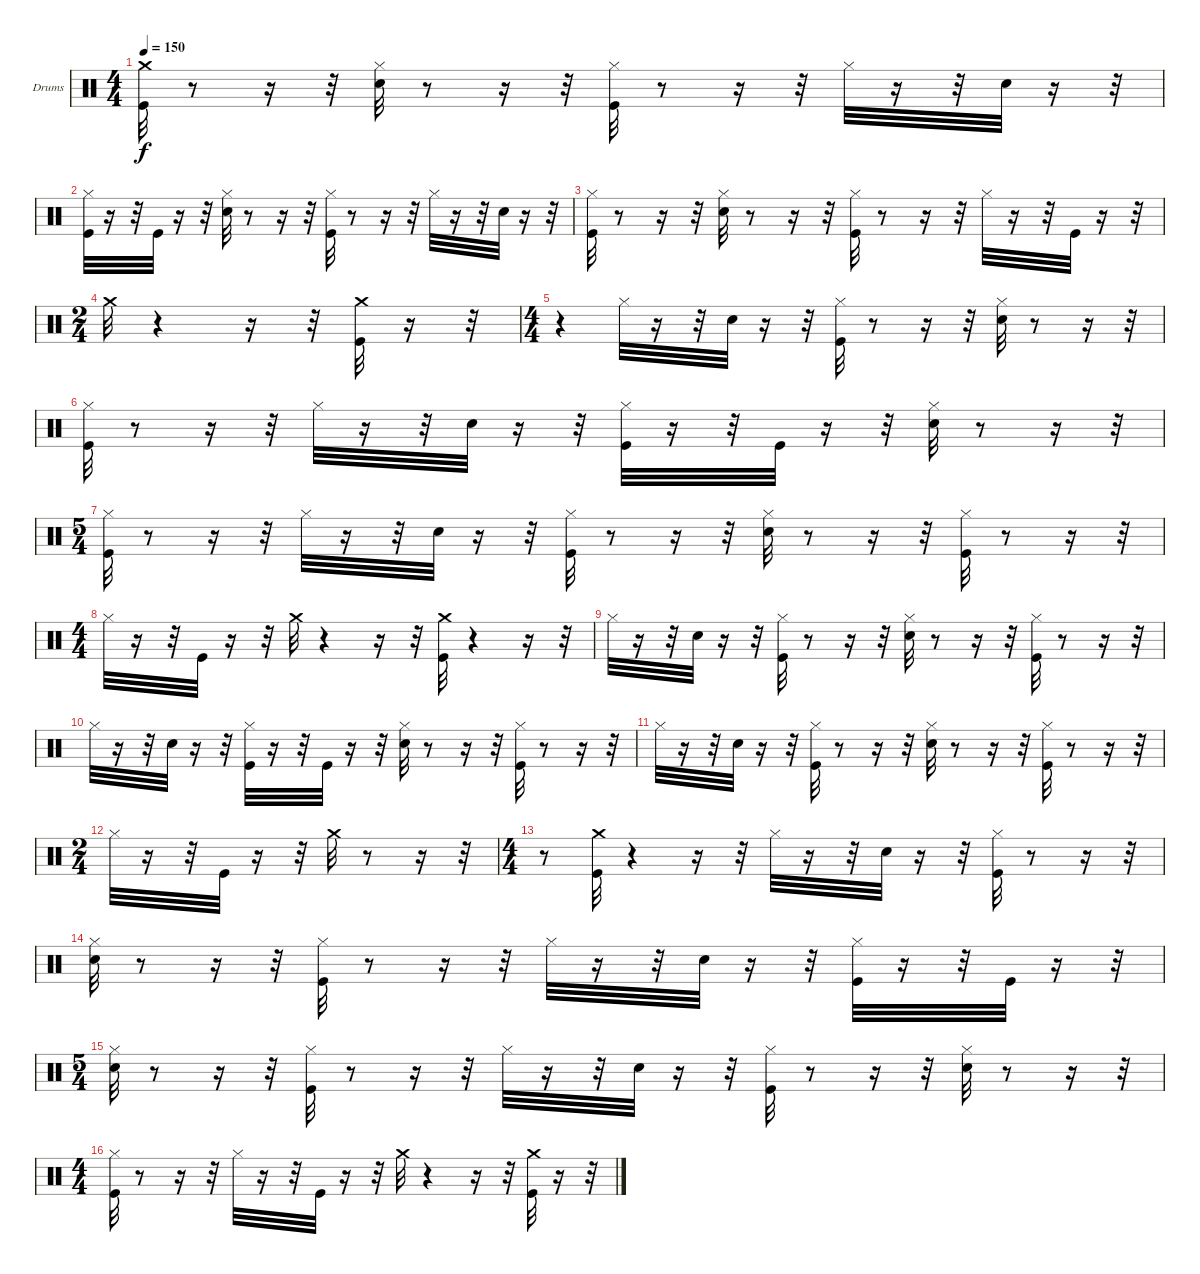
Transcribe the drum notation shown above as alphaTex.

\bracketExtendMode groupsimilarinstruments
\firstSystemTrackNameOrientation horizontal
\otherSystemsTrackNameOrientation horizontal
\track ("Drumkit" "Drums") {instrument percussion}
\staff {score}
\articulation defaults
\ts (4 4)
\tempo 150
\clef neutral
\ks c
("Crash medium (hit)" "Kick (hit)").32{dy f} r.8 r.16 r.32 ("Hi-Hat (closed)" "Snare (hit) 2").32 r.8 r.16 r.32 ("Hi-Hat (closed)" "Kick (hit)").32 r.8 r.16 r.32 "Hi-Hat (closed)".32 r.16 r.32 "Snare (hit) 2".32 r.16 r.32 |
("Hi-Hat (closed)" "Kick (hit)").32 r.16 r.32 "Kick (hit)".32 r.16 r.32 ("Hi-Hat (closed)" "Snare (hit) 2").32 r.8 r.16 r.32 ("Hi-Hat (closed)" "Kick (hit)").32 r.8 r.16 r.32 "Hi-Hat (closed)".32 r.16 r.32 "Snare (hit) 2".32 r.16 r.32 |
("Kick (hit)" "Hi-Hat (closed)").32 r.8 r.16 r.32 ("Snare (hit) 2" "Hi-Hat (closed)").32 r.8 r.16 r.32 ("Kick (hit)" "Hi-Hat (closed)").32 r.8 r.16 r.32 "Hi-Hat (closed)".32 r.16 r.32 "Kick (hit)".32 r.16 r.32 |
\ts (2 4)
"Crash medium (hit)".32 r.4 r.16 r.32 ("Crash medium (hit)" "Kick (hit)").32 r.16 r.32 |
\ts (4 4)
r.4 "Hi-Hat (closed)".32 r.16 r.32 "Snare (hit) 2".32 r.16 r.32 ("Kick (hit)" "Hi-Hat (closed)").32 r.8 r.16 r.32 ("Snare (hit) 2" "Hi-Hat (closed)").32 r.8 r.16 r.32 |
("Kick (hit)" "Hi-Hat (closed)").32 r.8 r.16 r.32 "Hi-Hat (closed)".32 r.16 r.32 "Snare (hit) 2".32 r.16 r.32 ("Hi-Hat (closed)" "Kick (hit)").32 r.16 r.32 "Kick (hit)".32 r.16 r.32 ("Hi-Hat (closed)" "Snare (hit) 2").32 r.8 r.16 r.32 |
\ts (5 4)
("Hi-Hat (closed)" "Kick (hit)").32 r.8 r.16 r.32 "Hi-Hat (closed)".32 r.16 r.32 "Snare (hit) 2".32 r.16 r.32 ("Hi-Hat (closed)" "Kick (hit)").32 r.8 r.16 r.32 ("Hi-Hat (closed)" "Snare (hit) 2").32 r.8 r.16 r.32 ("Hi-Hat (closed)" "Kick (hit)").32 r.8 r.16 r.32 |
\ts (4 4)
"Hi-Hat (closed)".32 r.16 r.32 "Kick (hit)".32 r.16 r.32 "Crash medium (hit)".32 r.4 r.16 r.32 ("Kick (hit)" "Crash medium (hit)").32 r.4 r.16 r.32 |
"Hi-Hat (closed)".32 r.16 r.32 "Snare (hit) 2".32 r.16 r.32 ("Kick (hit)" "Hi-Hat (closed)").32 r.8 r.16 r.32 ("Snare (hit) 2" "Hi-Hat (closed)").32 r.8 r.16 r.32 ("Kick (hit)" "Hi-Hat (closed)").32 r.8 r.16 r.32 |
"Hi-Hat (closed)".32 r.16 r.32 "Snare (hit) 2".32 r.16 r.32 ("Hi-Hat (closed)" "Kick (hit)").32 r.16 r.32 "Kick (hit)".32 r.16 r.32 ("Hi-Hat (closed)" "Snare (hit) 2").32 r.8 r.16 r.32 ("Hi-Hat (closed)" "Kick (hit)").32 r.8 r.16 r.32 |
"Hi-Hat (closed)".32 r.16 r.32 "Snare (hit) 2".32 r.16 r.32 ("Hi-Hat (closed)" "Kick (hit)").32 r.8 r.16 r.32 ("Hi-Hat (closed)" "Snare (hit) 2").32 r.8 r.16 r.32 ("Hi-Hat (closed)" "Kick (hit)").32 r.8 r.16 r.32 |
\ts (2 4)
"Hi-Hat (closed)".32 r.16 r.32 "Kick (hit)".32 r.16 r.32 "Crash medium (hit)".32 r.8 r.16 r.32 |
\ts (4 4)
r.8 ("Kick (hit)" "Crash medium (hit)").32 r.4 r.16 r.32 "Hi-Hat (closed)".32 r.16 r.32 "Snare (hit) 2".32 r.16 r.32 ("Kick (hit)" "Hi-Hat (closed)").32 r.8 r.16 r.32 |
("Snare (hit) 2" "Hi-Hat (closed)").32 r.8 r.16 r.32 ("Kick (hit)" "Hi-Hat (closed)").32 r.8 r.16 r.32 "Hi-Hat (closed)".32 r.16 r.32 "Snare (hit) 2".32 r.16 r.32 ("Hi-Hat (closed)" "Kick (hit)").32 r.16 r.32 "Kick (hit)".32 r.16 r.32 |
\ts (5 4)
("Hi-Hat (closed)" "Snare (hit) 2").32 r.8 r.16 r.32 ("Hi-Hat (closed)" "Kick (hit)").32 r.8 r.16 r.32 "Hi-Hat (closed)".32 r.16 r.32 "Snare (hit) 2".32 r.16 r.32 ("Hi-Hat (closed)" "Kick (hit)").32 r.8 r.16 r.32 ("Hi-Hat (closed)" "Snare (hit) 2").32 r.8 r.16 r.32 |
\ts (4 4)
("Hi-Hat (closed)" "Kick (hit)").32 r.8 r.16 r.32 "Hi-Hat (closed)".32 r.16 r.32 "Kick (hit)".32 r.16 r.32 "Crash medium (hit)".32 r.4 r.16 r.32 ("Kick (hit)" "Crash medium (hit)").32 r.16 r.32
